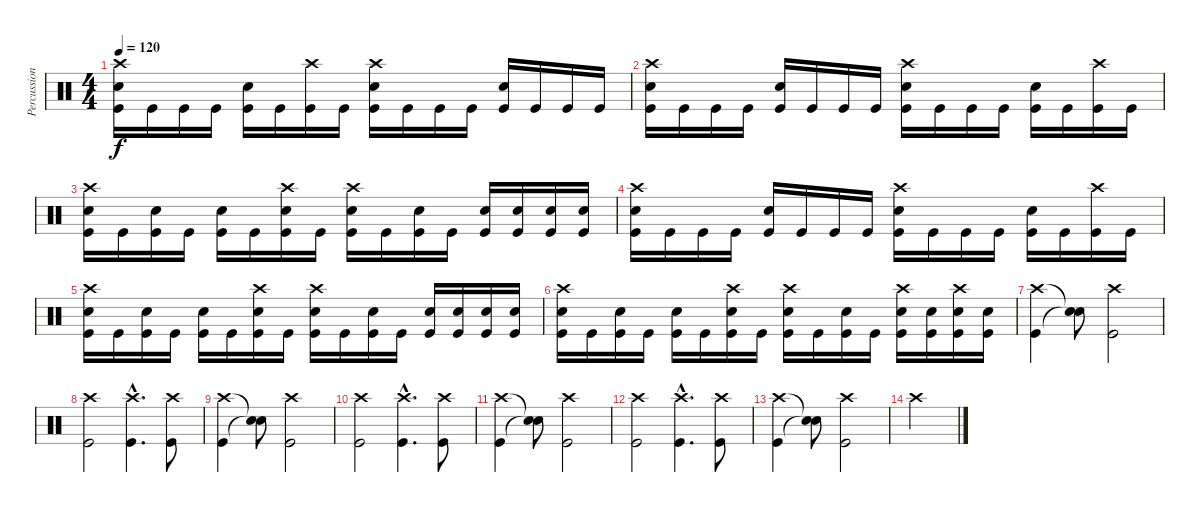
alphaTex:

\track ("Percussion" "Percussion") {instrument percussion}
\staff {score}
\articulation defaults
\ts (4 4)
\tempo 120
\clef neutral
\ks c
("Kick (hit)" "Snare (hit) 2" "Crash high (hit)").16{dy f} "Kick (hit)".16 "Kick (hit)".16 "Kick (hit)".16 ("Kick (hit)" "Snare (hit) 2").16 "Kick (hit)".16 ("Kick (hit)" "Crash high (hit)").16 "Kick (hit)".16 ("Kick (hit)" "Snare (hit) 2" "Crash high (hit)").16 "Kick (hit)".16 "Kick (hit)".16 "Kick (hit)".16 ("Kick (hit)" "Snare (hit) 2").16 "Kick (hit)".16 "Kick (hit)".16 "Kick (hit)".16 |
("Kick (hit)" "Snare (hit) 2" "Crash high (hit)").16 "Kick (hit)".16 "Kick (hit)".16 "Kick (hit)".16 ("Kick (hit)" "Snare (hit) 2").16 "Kick (hit)".16 "Kick (hit)".16 "Kick (hit)".16 ("Kick (hit)" "Snare (hit) 2" "Crash high (hit)").16 "Kick (hit)".16 "Kick (hit)".16 "Kick (hit)".16 ("Kick (hit)" "Snare (hit) 2").16 "Kick (hit)".16 ("Kick (hit)" "Crash high (hit)").16 "Kick (hit)".16 |
("Kick (hit)" "Snare (hit) 2" "Crash high (hit)").16 "Kick (hit)".16 ("Kick (hit)" "Snare (hit) 2").16 "Kick (hit)".16 ("Kick (hit)" "Snare (hit) 2").16 "Kick (hit)".16 ("Kick (hit)" "Snare (hit) 2" "Crash high (hit)").16 "Kick (hit)".16 ("Kick (hit)" "Snare (hit) 2" "Crash high (hit)").16 "Kick (hit)".16 ("Kick (hit)" "Snare (hit) 2").16 "Kick (hit)".16 ("Kick (hit)" "Snare (hit) 2").16 ("Kick (hit)" "Snare (hit) 2").16 ("Kick (hit)" "Snare (hit) 2").16 ("Kick (hit)" "Snare (hit) 2").16 |
("Kick (hit)" "Snare (hit) 2" "Crash high (hit)").16 "Kick (hit)".16 "Kick (hit)".16 "Kick (hit)".16 ("Kick (hit)" "Snare (hit) 2").16 "Kick (hit)".16 "Kick (hit)".16 "Kick (hit)".16 ("Kick (hit)" "Snare (hit) 2" "Crash high (hit)").16 "Kick (hit)".16 "Kick (hit)".16 "Kick (hit)".16 ("Kick (hit)" "Snare (hit) 2").16 "Kick (hit)".16 ("Kick (hit)" "Crash high (hit)").16 "Kick (hit)".16 |
("Kick (hit)" "Snare (hit) 2" "Crash high (hit)").16 "Kick (hit)".16 ("Kick (hit)" "Snare (hit) 2").16 "Kick (hit)".16 ("Kick (hit)" "Snare (hit) 2").16 "Kick (hit)".16 ("Kick (hit)" "Snare (hit) 2" "Crash high (hit)").16 "Kick (hit)".16 ("Kick (hit)" "Snare (hit) 2" "Crash high (hit)").16 "Kick (hit)".16 ("Kick (hit)" "Snare (hit) 2").16 "Kick (hit)".16 ("Kick (hit)" "Snare (hit) 2").16 ("Kick (hit)" "Snare (hit) 2").16 ("Kick (hit)" "Snare (hit) 2").16 ("Kick (hit)" "Snare (hit) 2").16 |
("Kick (hit)" "Snare (hit) 2" "Crash high (hit)").16 "Kick (hit)".16 ("Kick (hit)" "Snare (hit) 2").16 "Kick (hit)".16 ("Kick (hit)" "Snare (hit) 2").16 "Kick (hit)".16 ("Kick (hit)" "Snare (hit) 2" "Crash high (hit)").16 "Kick (hit)".16 ("Kick (hit)" "Snare (hit) 2" "Crash high (hit)").16 "Kick (hit)".16 ("Kick (hit)" "Snare (hit) 2").16 "Kick (hit)".16 ("Kick (hit)" "Snare (hit) 2" "Crash high (hit)").16 ("Kick (hit)" "Snare (hit) 2").16 ("Kick (hit)" "Snare (hit) 2" "Crash high (hit)").16 ("Kick (hit)" "Snare (hit) 2").16 |
("Kick (hit)" "Crash high (hit)").4 ("Snare (hit)"{t} "Snare (hit)"{t}).8 ("Kick (hit)" "Crash high (hit)").2 |
("Kick (hit)" "Crash high (hit)").2 ("Kick (hit)"{hac} "Crash high (hit)"{hac}).4{d} ("Kick (hit)" "Crash high (hit)").8 |
("Kick (hit)" "Crash high (hit)").4 ("Snare (hit)"{t} "Snare (hit)"{t}).8 ("Kick (hit)" "Crash high (hit)").2 |
("Kick (hit)" "Crash high (hit)").2 ("Kick (hit)"{hac} "Crash high (hit)"{hac}).4{d} ("Kick (hit)" "Crash high (hit)").8 |
("Kick (hit)" "Crash high (hit)").4 ("Snare (hit)"{t} "Snare (hit)"{t}).8 ("Kick (hit)" "Crash high (hit)").2 |
("Kick (hit)" "Crash high (hit)").2 ("Kick (hit)"{hac} "Crash high (hit)"{hac}).4{d} ("Kick (hit)" "Crash high (hit)").8 |
("Kick (hit)" "Crash high (hit)").4 ("Snare (hit)"{t} "Snare (hit)"{t}).8 ("Kick (hit)" "Crash high (hit)").2 |
"Crash high (hit)".2
